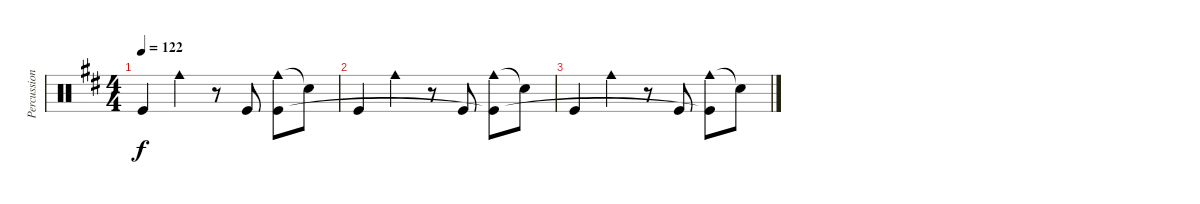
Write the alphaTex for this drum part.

\track ("Percussions" "Percussion") {instrument percussion}
\staff {score}
\articulation defaults
\ts (4 4)
\tempo 122
\clef neutral
\ks d "Kick (hit)".4{dy f} "Cowbell medium (hit)".4
r.8 "Kick (hit)".8 ("Cowbell medium (hit)" "Kick (hit)"{t}).8 "Snare (hit)"{t}.8 |
"Kick (hit)".4 "Cowbell medium (hit)".4 r.8 "Kick (hit)".8 ("Cowbell medium (hit)" "Kick (hit)"{t}).8 "Snare (hit)"{t}.8 |
"Kick (hit)".4 "Cowbell medium (hit)".4 r.8 "Kick (hit)".8 ("Cowbell medium (hit)" "Kick (hit)"{t}).8 "Snare (hit)"{t}.8
